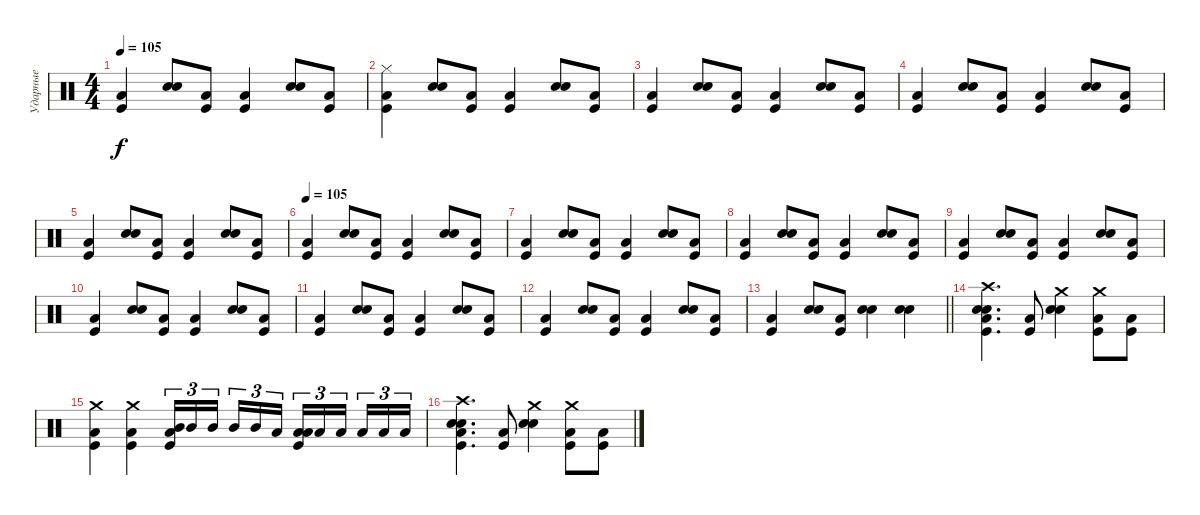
\track ("Ударные" "Ударные") {instrument percussion}
\staff {score}
\articulation defaults
\ts (4 4)
\tempo 105
\clef neutral
\ks c
("Low Tom (hit)" "Kick (hit)").4{dy f} ("Electric Snare (hit)" "Snare (hit) 2").8 ("Low Tom (hit)" "Kick (hit)").8 ("Low Tom (hit)" "Kick (hit)").4 ("Electric Snare (hit)" "Snare (hit) 2").8 ("Low Tom (hit)" "Kick (hit)").8 |
("Hi-Hat (closed)" "Low Tom (hit)" "Kick (hit)").4 ("Electric Snare (hit)" "Snare (hit) 2").8 ("Low Tom (hit)" "Kick (hit)").8 ("Low Tom (hit)" "Kick (hit)").4 ("Electric Snare (hit)" "Snare (hit) 2").8 ("Low Tom (hit)" "Kick (hit)").8 |
("Low Tom (hit)" "Kick (hit)").4 ("Electric Snare (hit)" "Snare (hit) 2").8 ("Low Tom (hit)" "Kick (hit)").8 ("Low Tom (hit)" "Kick (hit)").4 ("Electric Snare (hit)" "Snare (hit) 2").8 ("Low Tom (hit)" "Kick (hit)").8 |
("Low Tom (hit)" "Kick (hit)").4 ("Electric Snare (hit)" "Snare (hit) 2").8 ("Low Tom (hit)" "Kick (hit)").8 ("Low Tom (hit)" "Kick (hit)").4 ("Electric Snare (hit)" "Snare (hit) 2").8 ("Low Tom (hit)" "Kick (hit)").8 |
("Low Tom (hit)" "Kick (hit)").4 ("Electric Snare (hit)" "Snare (hit) 2").8 ("Low Tom (hit)" "Kick (hit)").8 ("Low Tom (hit)" "Kick (hit)").4 ("Electric Snare (hit)" "Snare (hit) 2").8 ("Low Tom (hit)" "Kick (hit)").8 |
\tempo 105
("Low Tom (hit)" "Kick (hit)").4 ("Electric Snare (hit)" "Snare (hit) 2").8 ("Low Tom (hit)" "Kick (hit)").8 ("Low Tom (hit)" "Kick (hit)").4 ("Electric Snare (hit)" "Snare (hit) 2").8 ("Low Tom (hit)" "Kick (hit)").8 |
("Low Tom (hit)" "Kick (hit)").4 ("Electric Snare (hit)" "Snare (hit) 2").8 ("Low Tom (hit)" "Kick (hit)").8 ("Low Tom (hit)" "Kick (hit)").4 ("Electric Snare (hit)" "Snare (hit) 2").8 ("Low Tom (hit)" "Kick (hit)").8 |
("Low Tom (hit)" "Kick (hit)").4 ("Electric Snare (hit)" "Snare (hit) 2").8 ("Low Tom (hit)" "Kick (hit)").8 ("Low Tom (hit)" "Kick (hit)").4 ("Electric Snare (hit)" "Snare (hit) 2").8 ("Low Tom (hit)" "Kick (hit)").8 |
("Low Tom (hit)" "Kick (hit)").4 ("Electric Snare (hit)" "Snare (hit) 2").8 ("Low Tom (hit)" "Kick (hit)").8 ("Low Tom (hit)" "Kick (hit)").4 ("Electric Snare (hit)" "Snare (hit) 2").8 ("Low Tom (hit)" "Kick (hit)").8 |
("Low Tom (hit)" "Kick (hit)").4 ("Electric Snare (hit)" "Snare (hit) 2").8 ("Low Tom (hit)" "Kick (hit)").8 ("Low Tom (hit)" "Kick (hit)").4 ("Electric Snare (hit)" "Snare (hit) 2").8 ("Low Tom (hit)" "Kick (hit)").8 |
("Low Tom (hit)" "Kick (hit)").4 ("Electric Snare (hit)" "Snare (hit) 2").8 ("Low Tom (hit)" "Kick (hit)").8 ("Low Tom (hit)" "Kick (hit)").4 ("Electric Snare (hit)" "Snare (hit) 2").8 ("Low Tom (hit)" "Kick (hit)").8 |
("Low Tom (hit)" "Kick (hit)").4 ("Electric Snare (hit)" "Snare (hit) 2").8 ("Low Tom (hit)" "Kick (hit)").8 ("Low Tom (hit)" "Kick (hit)").4 ("Electric Snare (hit)" "Snare (hit) 2").8 ("Low Tom (hit)" "Kick (hit)").8 |
\barLineRight lightlight
("Low Tom (hit)" "Kick (hit)").4 ("Electric Snare (hit)" "Snare (hit) 2").8 ("Low Tom (hit)" "Kick (hit)").8 ("Electric Snare (hit)" "Snare (hit) 2").4 ("Electric Snare (hit)" "Snare (hit) 2").4 |
("Crash high (hit)" "Electric Snare (hit)" "Snare (hit) 2" "Low Tom (hit)" "Kick (hit)").4{d} ("Low Tom (hit)" "Kick (hit)").8 ("Crash medium (hit)" "Electric Snare (hit)" "Snare (hit) 2").4 ("Crash medium (hit)" "Low Tom (hit)" "Kick (hit)").8 ("Low Tom (hit)" "Kick (hit)").8 |
("Crash medium (hit)" "Low Tom (hit)" "Kick (hit)").4 ("Crash medium (hit)" "Low Tom (hit)" "Kick (hit)").4 ("Mid Tom (hit)" "Low Tom (hit)" "Kick (hit)").16{tu (3 2)} "Mid Tom (hit)".16{tu (3 2)} "Mid Tom (hit)".16{tu (3 2) beam splitsecondary} "Mid Tom (hit)".16{tu (3 2)} "Mid Tom (hit)".16{tu (3 2)} "Low Tom (hit)".16{tu (3 2)} ("Low Tom (hit)" "Kick (hit)" "Low Tom (hit)").16{tu (3 2)} "Low Tom (hit)".16{tu (3 2)} "Low Tom (hit)".16{tu (3 2) beam splitsecondary} "Low Tom (hit)".16{tu (3 2)} "Low Tom (hit)".16{tu (3 2)} "Low Tom (hit)".16{tu (3 2)} |
("Crash high (hit)" "Electric Snare (hit)" "Snare (hit) 2" "Low Tom (hit)" "Kick (hit)").4{d} ("Low Tom (hit)" "Kick (hit)").8 ("Crash medium (hit)" "Electric Snare (hit)" "Snare (hit) 2").4 ("Crash medium (hit)" "Low Tom (hit)" "Kick (hit)").8 ("Low Tom (hit)" "Kick (hit)").8
